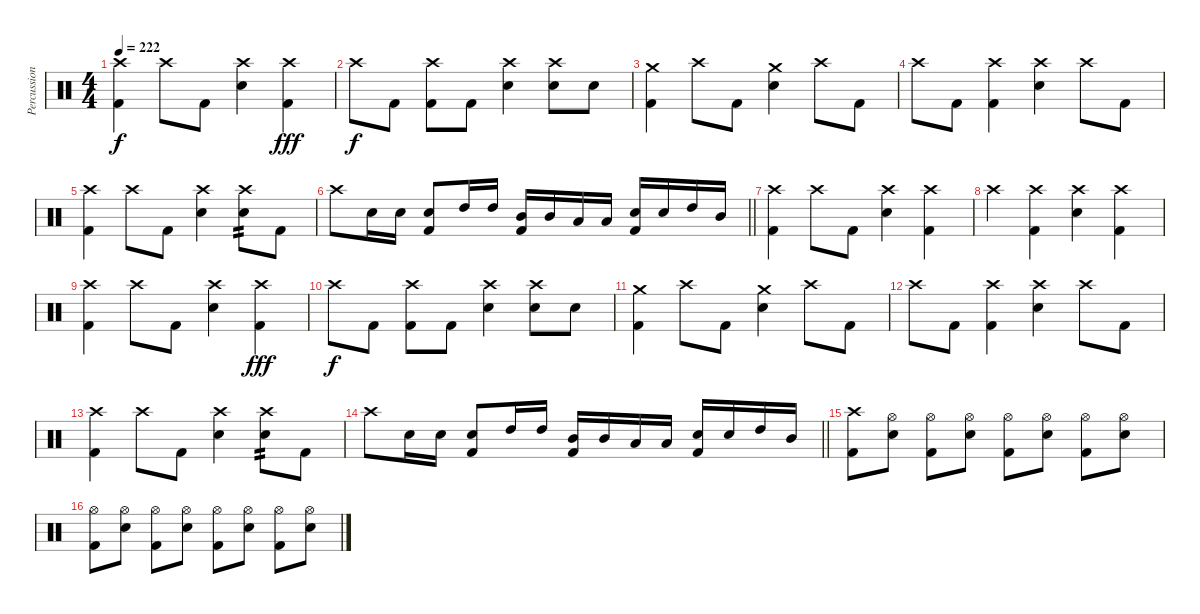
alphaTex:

\track ("Percussions" "Percussion") {instrument percussion}
\staff {score}
\articulation defaults
\ts (4 4)
\tempo 222
\clef neutral
\ks c
("Crash high (hit)" "Kick (hit) 2").4{dy f} "Crash high (hit)".8 "Kick (hit) 2".8 ("Crash high (hit)" "Electric Snare (hit)").4 ("Crash high (hit)" "Kick (hit) 2").4{dy fff} |
"Crash high (hit)".8{dy f} "Kick (hit) 2".8 ("Crash high (hit)" "Kick (hit) 2").8 "Kick (hit) 2".8 ("Crash high (hit)" "Electric Snare (hit)").4 ("Crash high (hit)" "Electric Snare (hit)").8 "Electric Snare (hit)".8 |
("Crash medium (hit)" "Kick (hit) 2").4 "Crash high (hit)".8 "Kick (hit) 2".8 ("Crash medium (hit)" "Electric Snare (hit)").4 "Crash high (hit)".8 "Kick (hit) 2".8 |
"Crash high (hit)".8 "Kick (hit) 2".8 ("Crash high (hit)" "Kick (hit) 2").4 ("Crash high (hit)" "Electric Snare (hit)").4 "Crash high (hit)".8 "Kick (hit) 2".8 |
("Crash high (hit)" "Kick (hit) 2").4 "Crash high (hit)".8 "Kick (hit) 2".8 ("Crash high (hit)" "Electric Snare (hit)").4 ("Crash high (hit)" "Electric Snare (hit)").8{tp 2} "Kick (hit) 2".8 |
\barLineRight lightlight "Crash high (hit)".8 "Electric Snare (hit)".16 "Electric Snare (hit)".16
("Electric Snare (hit)" "Kick (hit) 2").8 "High Tom (hit)".16 "High Tom (hit)".16 ("Mid Tom (hit)" "Kick (hit) 2").16 "Mid Tom (hit)".16 "Low Tom (hit)".16 "Low Tom (hit)".16 ("Electric Snare (hit)" "Kick (hit) 2").16 "Electric Snare (hit)".16 "High Tom (hit)".16 "Mid Tom (hit)".16 |
("Crash high (hit)" "Kick (hit) 2").4 "Crash high (hit)".8 "Kick (hit) 2".8 ("Crash high (hit)" "Electric Snare (hit)").4 ("Crash high (hit)" "Kick (hit) 2").4 |
"Crash high (hit)".4 ("Crash high (hit)" "Kick (hit) 2").4 ("Crash high (hit)" "Electric Snare (hit)").4 ("Crash high (hit)" "Kick (hit) 2").4 |
("Crash high (hit)" "Kick (hit) 2").4 "Crash high (hit)".8 "Kick (hit) 2".8 ("Crash high (hit)" "Electric Snare (hit)").4 ("Crash high (hit)" "Kick (hit) 2").4{dy fff} |
"Crash high (hit)".8{dy f} "Kick (hit) 2".8 ("Crash high (hit)" "Kick (hit) 2").8 "Kick (hit) 2".8 ("Crash high (hit)" "Electric Snare (hit)").4 ("Crash high (hit)" "Electric Snare (hit)").8 "Electric Snare (hit)".8 |
("Crash medium (hit)" "Kick (hit) 2").4 "Crash high (hit)".8 "Kick (hit) 2".8 ("Crash medium (hit)" "Electric Snare (hit)").4 "Crash high (hit)".8 "Kick (hit) 2".8 |
"Crash high (hit)".8 "Kick (hit) 2".8 ("Crash high (hit)" "Kick (hit) 2").4 ("Crash high (hit)" "Electric Snare (hit)").4 "Crash high (hit)".8 "Kick (hit) 2".8 |
("Crash high (hit)" "Kick (hit) 2").4 "Crash high (hit)".8 "Kick (hit) 2".8 ("Crash high (hit)" "Electric Snare (hit)").4 ("Crash high (hit)" "Electric Snare (hit)").8{tp 2} "Kick (hit) 2".8 |
\barLineRight lightlight "Crash high (hit)".8 "Electric Snare (hit)".16 "Electric Snare (hit)".16
("Electric Snare (hit)" "Kick (hit) 2").8 "High Tom (hit)".16 "High Tom (hit)".16 ("Mid Tom (hit)" "Kick (hit) 2").16 "Mid Tom (hit)".16 "Low Tom (hit)".16 "Low Tom (hit)".16 ("Electric Snare (hit)" "Kick (hit) 2").16 "Electric Snare (hit)".16 "High Tom (hit)".16 "Mid Tom (hit)".16 |
("Crash high (hit)" "Kick (hit) 2").8 ("Hi-Hat (open)" "Electric Snare (hit)").8 ("Hi-Hat (open)" "Kick (hit) 2").8 ("Hi-Hat (open)" "Electric Snare (hit)").8 ("Hi-Hat (open)" "Kick (hit) 2").8 ("Hi-Hat (open)" "Electric Snare (hit)").8 ("Hi-Hat (open)" "Kick (hit) 2").8 ("Hi-Hat (open)" "Electric Snare (hit)").8 |
("Hi-Hat (open)" "Kick (hit) 2").8 ("Hi-Hat (open)" "Electric Snare (hit)").8 ("Hi-Hat (open)" "Kick (hit) 2").8 ("Hi-Hat (open)" "Electric Snare (hit)").8 ("Hi-Hat (open)" "Kick (hit) 2").8 ("Hi-Hat (open)" "Electric Snare (hit)").8 ("Hi-Hat (open)" "Kick (hit) 2").8 ("Hi-Hat (open)" "Electric Snare (hit)").8
